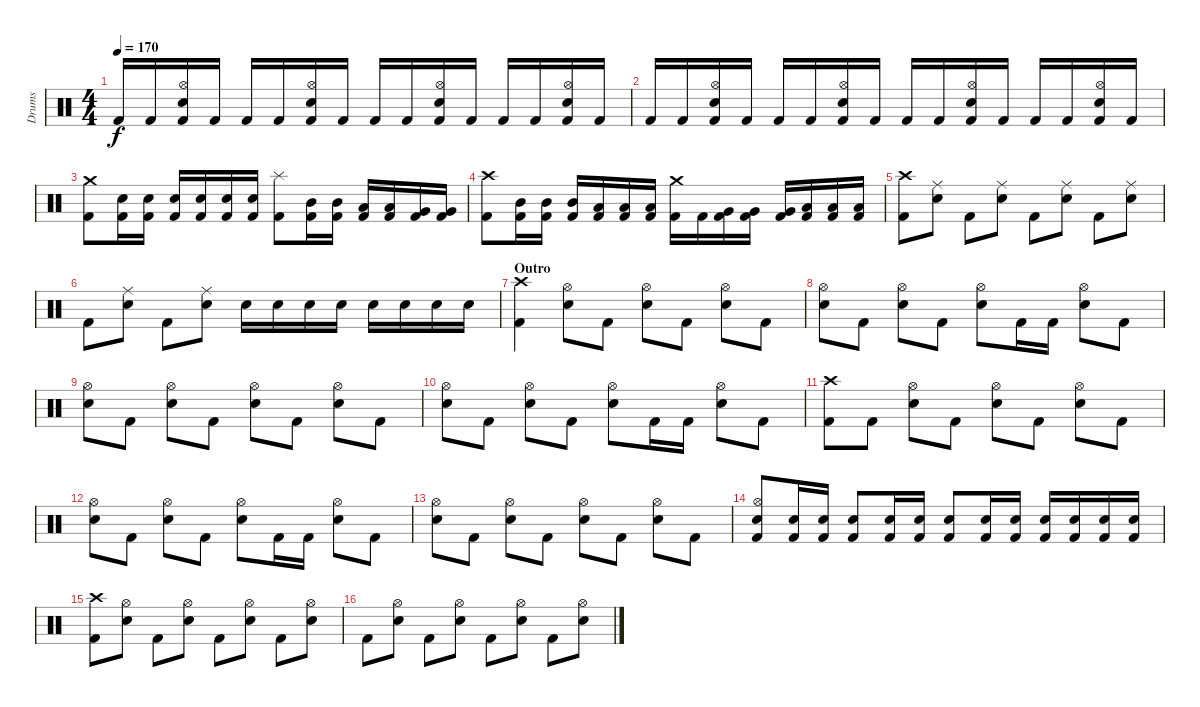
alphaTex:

\track ("Drums" "Drums") {instrument percussion}
\staff {score}
\articulation defaults
\ts (4 4)
\tempo 170
\clef neutral
\ks c "Kick (hit) 2".16{dy f} "Kick (hit) 2".16
("Hi-Hat (open)" "Snare (hit) 2" "Kick (hit) 2").16 "Kick (hit) 2".16 "Kick (hit) 2".16 "Kick (hit) 2".16 ("Hi-Hat (open)" "Snare (hit) 2" "Kick (hit) 2").16 "Kick (hit) 2".16 "Kick (hit) 2".16 "Kick (hit) 2".16 ("Hi-Hat (open)" "Snare (hit) 2" "Kick (hit) 2").16 "Kick (hit) 2".16 "Kick (hit) 2".16 "Kick (hit) 2".16 ("Hi-Hat (open)" "Snare (hit) 2" "Kick (hit) 2").16 "Kick (hit) 2".16 |
"Kick (hit) 2".16 "Kick (hit) 2".16 ("Hi-Hat (open)" "Snare (hit) 2" "Kick (hit) 2").16 "Kick (hit) 2".16 "Kick (hit) 2".16 "Kick (hit) 2".16 ("Hi-Hat (open)" "Snare (hit) 2" "Kick (hit) 2").16 "Kick (hit) 2".16 "Kick (hit) 2".16 "Kick (hit) 2".16 ("Hi-Hat (open)" "Snare (hit) 2" "Kick (hit) 2").16 "Kick (hit) 2".16 "Kick (hit) 2".16 "Kick (hit) 2".16 ("Hi-Hat (open)" "Snare (hit) 2" "Kick (hit) 2").16 "Kick (hit) 2".16 |
("Crash medium (hit)" "Kick (hit) 2").8 ("Snare (hit) 2" "Kick (hit) 2").16 ("Snare (hit) 2" "Kick (hit) 2").16 ("Snare (hit) 2" "Kick (hit) 2").16 ("Snare (hit) 2" "Kick (hit) 2").16 ("Snare (hit) 2" "Kick (hit) 2").16 ("Snare (hit) 2" "Kick (hit) 2").16 ("Splash (hit)" "Kick (hit) 2").8 ("Mid Tom (hit)" "Kick (hit) 2").16 ("Mid Tom (hit)" "Kick (hit) 2").16 ("Low Tom (hit)" "Kick (hit) 2").16 ("Low Tom (hit)" "Kick (hit) 2").16 ("Very Low Tom (hit)" "Kick (hit) 2").16 ("Very Low Tom (hit)" "Kick (hit) 2").16 |
("Crash high (hit)" "Kick (hit) 2").8 ("Mid Tom (hit)" "Kick (hit) 2").16 ("Mid Tom (hit)" "Kick (hit) 2").16 ("Mid Tom (hit)" "Kick (hit) 2").16 ("Low Tom (hit)" "Kick (hit) 2").16 ("Low Tom (hit)" "Kick (hit) 2").16 ("Low Tom (hit)" "Kick (hit) 2").16 ("Crash medium (hit)" "Kick (hit) 2").16 "Kick (hit) 2".16 ("Very Low Tom (hit)" "Kick (hit) 2").16 ("Very Low Tom (hit)" "Kick (hit) 2").16 ("Very Low Tom (hit)" "Kick (hit) 2").16 ("Low Floor Tom (hit)" "Kick (hit) 2").16 ("Low Floor Tom (hit)" "Kick (hit) 2").16 ("Low Floor Tom (hit)" "Kick (hit) 2").16 |
("Crash high (hit)" "Kick (hit) 2").8 ("Ride (middle)" "Snare (hit) 2").8 "Kick (hit) 2".8 ("Ride (middle)" "Snare (hit) 2").8 "Kick (hit) 2".8 ("Ride (middle)" "Snare (hit) 2").8 "Kick (hit) 2".8 ("Ride (middle)" "Snare (hit) 2").8 |
"Kick (hit) 2".8 ("Ride (middle)" "Snare (hit) 2").8 "Kick (hit) 2".8 ("Ride (middle)" "Snare (hit) 2").8 "Snare (hit) 2".16 "Snare (hit) 2".16 "Snare (hit) 2".16 "Snare (hit) 2".16 "Snare (hit) 2".16 "Snare (hit) 2".16 "Snare (hit) 2".16 "Snare (hit) 2".16 |
\section ("" "Outro")
("Crash high (hit)" "Kick (hit) 2").4 ("Hi-Hat (open)" "Snare (hit) 2").8 "Kick (hit) 2".8 ("Hi-Hat (open)" "Snare (hit) 2").8 "Kick (hit) 2".8 ("Hi-Hat (open)" "Snare (hit) 2").8 "Kick (hit) 2".8 |
("Hi-Hat (open)" "Snare (hit) 2").8 "Kick (hit) 2".8 ("Hi-Hat (open)" "Snare (hit) 2").8 "Kick (hit) 2".8 ("Hi-Hat (open)" "Snare (hit) 2").8 "Kick (hit) 2".16 "Kick (hit) 2".16 ("Hi-Hat (open)" "Snare (hit) 2").8 "Kick (hit) 2".8 |
("Hi-Hat (open)" "Snare (hit) 2").8 "Kick (hit) 2".8 ("Hi-Hat (open)" "Snare (hit) 2").8 "Kick (hit) 2".8 ("Hi-Hat (open)" "Snare (hit) 2").8 "Kick (hit) 2".8 ("Hi-Hat (open)" "Snare (hit) 2").8 "Kick (hit) 2".8 |
("Hi-Hat (open)" "Snare (hit) 2").8 "Kick (hit) 2".8 ("Hi-Hat (open)" "Snare (hit) 2").8 "Kick (hit) 2".8 ("Hi-Hat (open)" "Snare (hit) 2").8 "Kick (hit) 2".16 "Kick (hit) 2".16 ("Hi-Hat (open)" "Snare (hit) 2").8 "Kick (hit) 2".8 |
("Crash high (hit)" "Kick (hit) 2").8 "Kick (hit) 2".8 ("Hi-Hat (open)" "Snare (hit) 2").8 "Kick (hit) 2".8 ("Hi-Hat (open)" "Snare (hit) 2").8 "Kick (hit) 2".8 ("Hi-Hat (open)" "Snare (hit) 2").8 "Kick (hit) 2".8 |
("Hi-Hat (open)" "Snare (hit) 2").8 "Kick (hit) 2".8 ("Hi-Hat (open)" "Snare (hit) 2").8 "Kick (hit) 2".8 ("Hi-Hat (open)" "Snare (hit) 2").8 "Kick (hit) 2".16 "Kick (hit) 2".16 ("Hi-Hat (open)" "Snare (hit) 2").8 "Kick (hit) 2".8 |
("Hi-Hat (open)" "Snare (hit) 2").8 "Kick (hit) 2".8 ("Hi-Hat (open)" "Snare (hit) 2").8 "Kick (hit) 2".8 ("Hi-Hat (open)" "Snare (hit) 2").8 "Kick (hit) 2".8 ("Hi-Hat (open)" "Snare (hit) 2").8 "Kick (hit) 2".8 |
("Hi-Hat (open)" "Snare (hit) 2" "Kick (hit) 2").8 ("Snare (hit) 2" "Kick (hit) 2").16 ("Snare (hit) 2" "Kick (hit) 2").16 ("Snare (hit) 2" "Kick (hit) 2").8 ("Snare (hit) 2" "Kick (hit) 2").16 ("Snare (hit) 2" "Kick (hit) 2").16 ("Snare (hit) 2" "Kick (hit) 2").8 ("Snare (hit) 2" "Kick (hit) 2").16 ("Snare (hit) 2" "Kick (hit) 2").16 ("Snare (hit) 2" "Kick (hit) 2").16 ("Snare (hit) 2" "Kick (hit) 2").16 ("Snare (hit) 2" "Kick (hit) 2").16 ("Snare (hit) 2" "Kick (hit) 2").16 |
\section ("" "")
("Crash high (hit)" "Kick (hit) 2").8 ("Hi-Hat (open)" "Snare (hit) 2").8 "Kick (hit) 2".8 ("Hi-Hat (open)" "Snare (hit) 2").8 "Kick (hit) 2".8 ("Hi-Hat (open)" "Snare (hit) 2").8 "Kick (hit) 2".8 ("Hi-Hat (open)" "Snare (hit) 2").8 |
"Kick (hit) 2".8 ("Hi-Hat (open)" "Snare (hit) 2").8 "Kick (hit) 2".8 ("Hi-Hat (open)" "Snare (hit) 2").8 "Kick (hit) 2".8 ("Hi-Hat (open)" "Snare (hit) 2").8 "Kick (hit) 2".8 ("Hi-Hat (open)" "Snare (hit) 2").8
